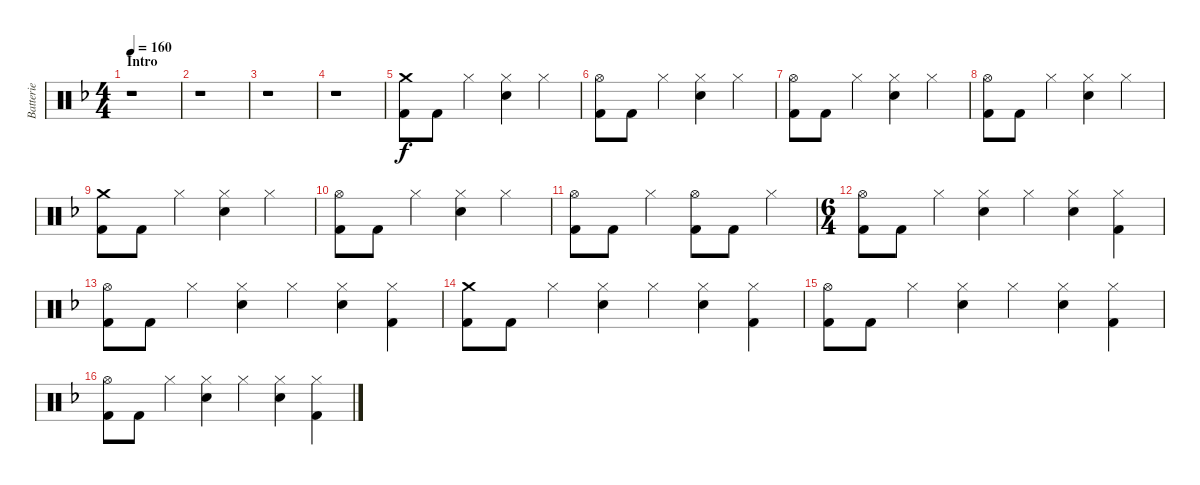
\track ("Batterie" "Batterie") {instrument percussion}
\staff {score}
\articulation defaults
\ts (4 4)
\section ("" "Intro")
\tempo 160
\clef neutral
\ks f
r.1{dy f} |
r.1 |
r.1 |
r.1 |
("Crash medium (hit)" "Kick (hit) 2").8 "Kick (hit) 2".8 "Hi-Hat (closed)".4 ("Hi-Hat (closed)" "Electric Snare (hit)").4 "Hi-Hat (closed)".4 |
("Hi-Hat (open)" "Kick (hit) 2").8 "Kick (hit) 2".8 "Hi-Hat (closed)".4 ("Hi-Hat (closed)" "Electric Snare (hit)").4 "Hi-Hat (closed)".4 |
("Hi-Hat (open)" "Kick (hit) 2").8 "Kick (hit) 2".8 "Hi-Hat (closed)".4 ("Hi-Hat (closed)" "Electric Snare (hit)").4 "Hi-Hat (closed)".4 |
("Hi-Hat (open)" "Kick (hit) 2").8 "Kick (hit) 2".8 "Hi-Hat (closed)".4 ("Hi-Hat (closed)" "Electric Snare (hit)").4 "Hi-Hat (closed)".4 |
("Crash medium (hit)" "Kick (hit) 2").8 "Kick (hit) 2".8 "Hi-Hat (closed)".4 ("Hi-Hat (closed)" "Electric Snare (hit)").4 "Hi-Hat (closed)".4 |
("Hi-Hat (open)" "Kick (hit) 2").8 "Kick (hit) 2".8 "Hi-Hat (closed)".4 ("Hi-Hat (closed)" "Electric Snare (hit)").4 "Hi-Hat (closed)".4 |
("Hi-Hat (open)" "Kick (hit) 2").8 "Kick (hit) 2".8 "Hi-Hat (closed)".4 ("Hi-Hat (open)" "Kick (hit) 2").8 "Kick (hit) 2".8 "Hi-Hat (closed)".4 |
\ts (6 4)
("Hi-Hat (open)" "Kick (hit) 2").8 "Kick (hit) 2".8 "Hi-Hat (closed)".4 ("Hi-Hat (closed)" "Electric Snare (hit)").4 "Hi-Hat (closed)".4 ("Hi-Hat (closed)" "Electric Snare (hit)").4 ("Hi-Hat (closed)" "Kick (hit) 2").4 |
("Hi-Hat (open)" "Kick (hit) 2").8 "Kick (hit) 2".8 "Hi-Hat (closed)".4 ("Hi-Hat (closed)" "Electric Snare (hit)").4 "Hi-Hat (closed)".4 ("Hi-Hat (closed)" "Electric Snare (hit)").4 ("Hi-Hat (closed)" "Kick (hit) 2").4 |
("Crash medium (hit)" "Kick (hit) 2").8 "Kick (hit) 2".8 "Hi-Hat (closed)".4 ("Hi-Hat (closed)" "Electric Snare (hit)").4 "Hi-Hat (closed)".4 ("Hi-Hat (closed)" "Electric Snare (hit)").4 ("Hi-Hat (closed)" "Kick (hit) 2").4 |
("Hi-Hat (open)" "Kick (hit) 2").8 "Kick (hit) 2".8 "Hi-Hat (closed)".4 ("Hi-Hat (closed)" "Electric Snare (hit)").4 "Hi-Hat (closed)".4 ("Hi-Hat (closed)" "Electric Snare (hit)").4 ("Hi-Hat (closed)" "Kick (hit) 2").4 |
("Hi-Hat (open)" "Kick (hit) 2").8 "Kick (hit) 2".8 "Hi-Hat (closed)".4 ("Hi-Hat (closed)" "Electric Snare (hit)").4 "Hi-Hat (closed)".4 ("Hi-Hat (closed)" "Electric Snare (hit)").4 ("Hi-Hat (closed)" "Kick (hit) 2").4
